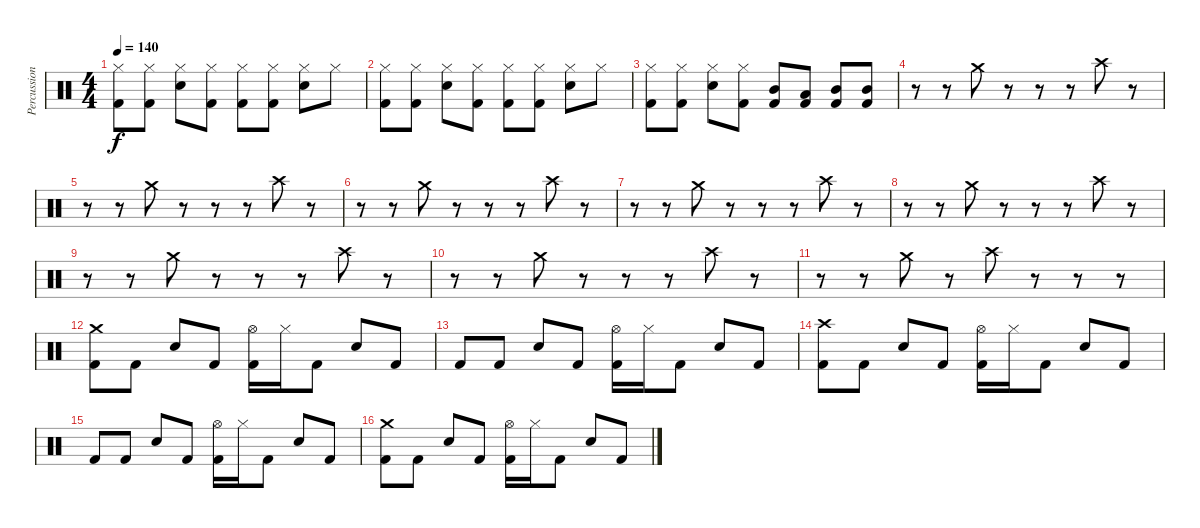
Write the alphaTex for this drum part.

\track ("Percussion" "Percussion") {instrument percussion}
\staff {score}
\articulation defaults
\ts (4 4)
\tempo 140
\clef neutral
\ks c
("Hi-Hat (closed)" "Kick (hit) 2").8{dy f} ("Hi-Hat (closed)" "Kick (hit) 2").8 ("Hi-Hat (closed)" "Snare (hit) 2").8 ("Hi-Hat (closed)" "Kick (hit) 2").8 ("Hi-Hat (closed)" "Kick (hit) 2").8 ("Hi-Hat (closed)" "Kick (hit) 2").8 ("Hi-Hat (closed)" "Snare (hit) 2").8 "Hi-Hat (closed)".8 |
("Hi-Hat (closed)" "Kick (hit) 2").8 ("Hi-Hat (closed)" "Kick (hit) 2").8 ("Hi-Hat (closed)" "Snare (hit) 2").8 ("Hi-Hat (closed)" "Kick (hit) 2").8 ("Hi-Hat (closed)" "Kick (hit) 2").8 ("Hi-Hat (closed)" "Kick (hit) 2").8 ("Hi-Hat (closed)" "Snare (hit) 2").8 "Hi-Hat (closed)".8 |
("Hi-Hat (closed)" "Kick (hit) 2").8 ("Hi-Hat (closed)" "Kick (hit) 2").8 ("Hi-Hat (closed)" "Snare (hit) 2").8 ("Hi-Hat (closed)" "Kick (hit) 2").8 ("Mid Tom (hit)" "Kick (hit) 2").8 ("Low Tom (hit)" "Kick (hit) 2").8 ("Mid Tom (hit)" "Kick (hit) 2").8 ("Mid Tom (hit)" "Kick (hit) 2").8 |
r.8 r.8 "Crash medium (hit)".8 r.8 r.8 r.8 "Crash high (hit)".8 r.8 |
r.8 r.8 "Crash medium (hit)".8 r.8 r.8 r.8 "Crash high (hit)".8 r.8 |
r.8 r.8 "Crash medium (hit)".8 r.8 r.8 r.8 "Crash high (hit)".8 r.8 |
r.8 r.8 "Crash medium (hit)".8 r.8 r.8 r.8 "Crash high (hit)".8 r.8 |
r.8 r.8 "Crash medium (hit)".8 r.8 r.8 r.8 "Crash high (hit)".8 r.8 |
r.8 r.8 "Crash medium (hit)".8 r.8 r.8 r.8 "Crash high (hit)".8 r.8 |
r.8 r.8 "Crash medium (hit)".8 r.8 r.8 r.8 "Crash high (hit)".8 r.8 |
r.8 r.8 "Crash medium (hit)".8 r.8 "Crash high (hit)".8 r.8 r.8 r.8 |
("Crash medium (hit)" "Kick (hit) 2").8 "Kick (hit) 2".8 "Snare (hit) 2".8 "Kick (hit) 2".8 ("Hi-Hat (open)" "Kick (hit) 2").16 "Hi-Hat (closed)".16 "Kick (hit) 2".8 "Snare (hit) 2".8 "Kick (hit) 2".8 |
"Kick (hit) 2".8 "Kick (hit) 2".8 "Snare (hit) 2".8 "Kick (hit) 2".8 ("Hi-Hat (open)" "Kick (hit) 2").16 "Hi-Hat (closed)".16 "Kick (hit) 2".8 "Snare (hit) 2".8 "Kick (hit) 2".8 |
("Crash high (hit)" "Kick (hit) 2").8 "Kick (hit) 2".8 "Snare (hit) 2".8 "Kick (hit) 2".8 ("Hi-Hat (open)" "Kick (hit) 2").16 "Hi-Hat (closed)".16 "Kick (hit) 2".8 "Snare (hit) 2".8 "Kick (hit) 2".8 |
"Kick (hit) 2".8 "Kick (hit) 2".8 "Snare (hit) 2".8 "Kick (hit) 2".8 ("Hi-Hat (open)" "Kick (hit) 2").16 "Hi-Hat (closed)".16 "Kick (hit) 2".8 "Snare (hit) 2".8 "Kick (hit) 2".8 |
("Crash medium (hit)" "Kick (hit) 2").8 "Kick (hit) 2".8 "Snare (hit) 2".8 "Kick (hit) 2".8 ("Hi-Hat (open)" "Kick (hit) 2").16 "Hi-Hat (closed)".16 "Kick (hit) 2".8 "Snare (hit) 2".8 "Kick (hit) 2".8
